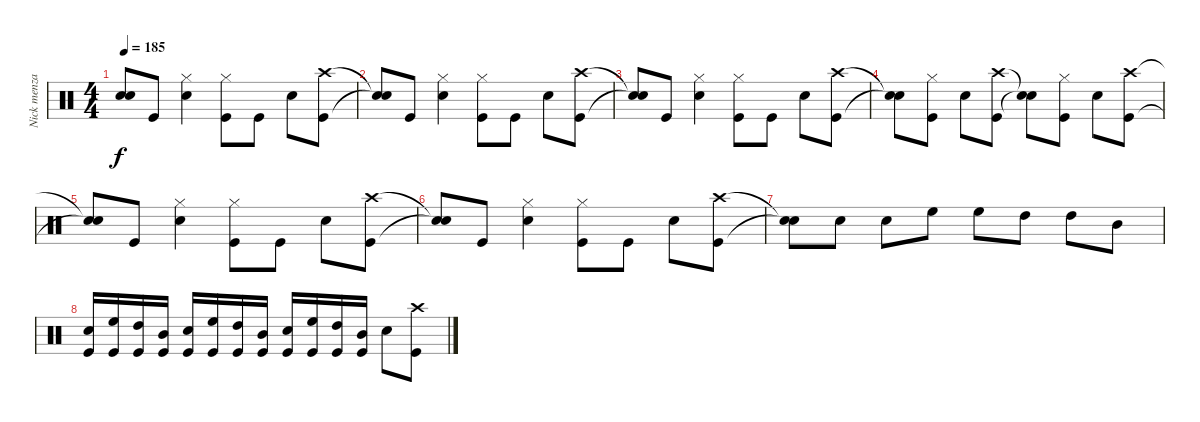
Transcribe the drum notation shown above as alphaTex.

\track ("Nick menza/Jimmy de grasso" "Nick menza") {instrument percussion}
\staff {score}
\articulation defaults
\ts (4 4)
\tempo 185
\clef neutral
\ks c
("Snare (hit)"{t} "Snare (hit)"{t}).8{dy f} "Kick (hit)".8 ("Hi-Hat (closed)" "Snare (hit) 2").4 ("Kick (hit)" "Hi-Hat (closed)").8 "Kick (hit)".8 "Snare (hit) 2".8 ("Kick (hit)" "Crash high (hit)").8 |
("Snare (hit)"{t} "Snare (hit)"{t}).8 "Kick (hit)".8 ("Hi-Hat (closed)" "Snare (hit) 2").4 ("Kick (hit)" "Hi-Hat (closed)").8 "Kick (hit)".8 "Snare (hit) 2".8 ("Kick (hit)" "Crash high (hit)").8 |
("Snare (hit)"{t} "Snare (hit)"{t}).8 "Kick (hit)".8 ("Hi-Hat (closed)" "Snare (hit) 2").4 ("Kick (hit)" "Hi-Hat (closed)").8 "Kick (hit)".8 "Snare (hit) 2".8 ("Kick (hit)" "Crash high (hit)").8 |
("Snare (hit)"{t} "Snare (hit)"{t}).8 ("Kick (hit)" "Hi-Hat (closed)").8 "Snare (hit) 2".8 ("Kick (hit)" "Crash high (hit)").8 ("Snare (hit)"{t} "Snare (hit)"{t}).8 ("Kick (hit)" "Hi-Hat (closed)").8 "Snare (hit) 2".8 ("Kick (hit)" "Crash high (hit)").8 |
("Snare (hit)"{t} "Snare (hit)"{t}).8 "Kick (hit)".8 ("Hi-Hat (closed)" "Snare (hit) 2").4 ("Kick (hit)" "Hi-Hat (closed)").8 "Kick (hit)".8 "Snare (hit) 2".8 ("Kick (hit)" "Crash high (hit)").8 |
("Snare (hit)"{t} "Snare (hit)"{t}).8 "Kick (hit)".8 ("Hi-Hat (closed)" "Snare (hit) 2").4 ("Kick (hit)" "Hi-Hat (closed)").8 "Kick (hit)".8 "Snare (hit) 2".8 ("Kick (hit)" "Crash high (hit)").8 |
("Snare (hit)"{t} "Snare (hit)"{t}).8 "Snare (hit) 2".8 "Snare (hit) 2".8 "High Floor Tom (hit)".8 "High Floor Tom (hit)".8 "High Tom (hit)".8 "High Tom (hit)".8 "Mid Tom (hit)".8 |
("Kick (hit)" "Snare (hit) 2").16 ("Kick (hit)" "High Floor Tom (hit)").16 ("Kick (hit)" "High Tom (hit)").16 ("Kick (hit)" "Mid Tom (hit)").16 ("Kick (hit)" "Snare (hit) 2").16 ("Kick (hit)" "High Floor Tom (hit)").16 ("Kick (hit)" "High Tom (hit)").16 ("Kick (hit)" "Mid Tom (hit)").16 ("Kick (hit)" "Snare (hit) 2").16 ("Kick (hit)" "High Floor Tom (hit)").16 ("Kick (hit)" "High Tom (hit)").16 ("Kick (hit)" "Mid Tom (hit)").16 "Snare (hit) 2".8 ("Kick (hit)" "Crash high (hit)").8
